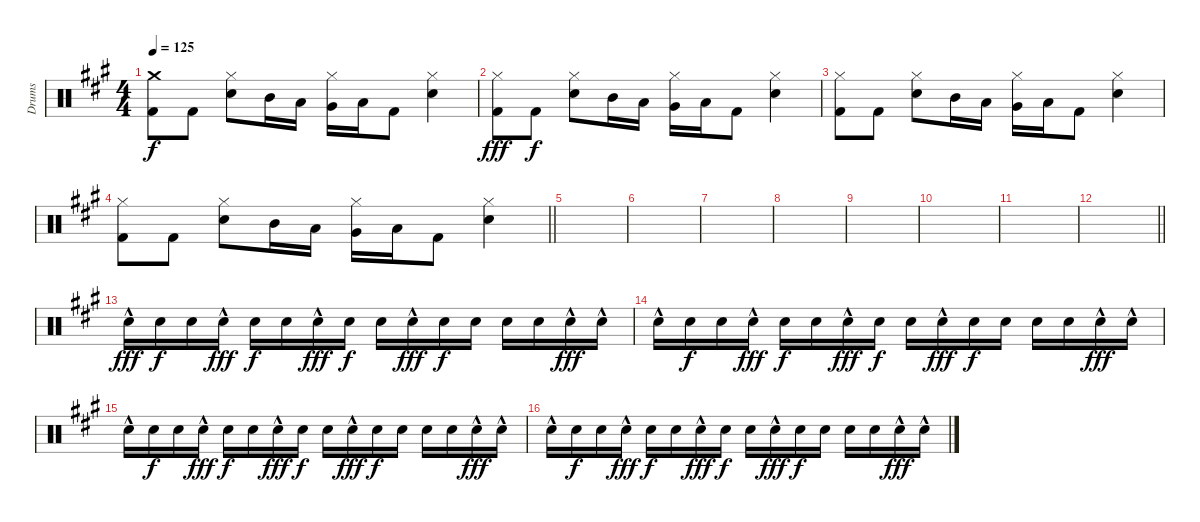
\track ("Drums" "Drums") {instrument percussion}
\staff {score}
\articulation defaults
\ts (4 4)
\tempo 125
\clef neutral
\ks a
("Crash medium (hit)" "Kick (hit) 2").8{dy f} "Kick (hit) 2".8 ("Hi-Hat (closed)" "Snare (hit) 2").8 "Mid Tom (hit)".16 "Low Tom (hit)".16 ("Hi-Hat (closed)" "Very Low Tom (hit)").16 "Low Floor Tom (hit)".16 "Kick (hit) 2".8 ("Hi-Hat (closed)" "Snare (hit) 2").4 |
("Hi-Hat (closed)" "Kick (hit) 2").8{dy fff} "Kick (hit) 2".8{dy f} ("Hi-Hat (closed)" "Snare (hit) 2").8 "Mid Tom (hit)".16 "Low Tom (hit)".16 ("Hi-Hat (closed)" "Very Low Tom (hit)").16 "Low Floor Tom (hit)".16 "Kick (hit) 2".8 ("Hi-Hat (closed)" "Snare (hit) 2").4 |
("Hi-Hat (closed)" "Kick (hit) 2").8 "Kick (hit) 2".8 ("Hi-Hat (closed)" "Snare (hit) 2").8 "Mid Tom (hit)".16 "Low Tom (hit)".16 ("Hi-Hat (closed)" "Very Low Tom (hit)").16 "Low Floor Tom (hit)".16 "Kick (hit) 2".8 ("Hi-Hat (closed)" "Snare (hit) 2").4 |
\barLineRight lightlight
("Hi-Hat (closed)" "Kick (hit) 2").8 "Kick (hit) 2".8 ("Hi-Hat (closed)" "Snare (hit) 2").8 "Mid Tom (hit)".16 "Low Tom (hit)".16 ("Hi-Hat (closed)" "Very Low Tom (hit)").16 "Low Floor Tom (hit)".16 "Kick (hit) 2".8 ("Hi-Hat (closed)" "Snare (hit) 2").4 |
|
|
|
|
|
|
|
\barLineRight lightlight
|
"Snare (hit) 2"{hac}.16{dy fff} "Snare (hit) 2".16{dy f} "Snare (hit) 2".16 "Snare (hit) 2"{hac}.16{dy fff} "Snare (hit) 2".16{dy f} "Snare (hit) 2".16 "Snare (hit) 2"{hac}.16{dy fff} "Snare (hit) 2".16{dy f} "Snare (hit) 2".16 "Snare (hit) 2"{hac}.16{dy fff} "Snare (hit) 2".16{dy f} "Snare (hit) 2".16 "Snare (hit) 2".16 "Snare (hit) 2".16 "Snare (hit) 2"{hac}.16{dy fff} "Snare (hit) 2"{hac}.16 |
"Snare (hit) 2"{hac}.16 "Snare (hit) 2".16{dy f} "Snare (hit) 2".16 "Snare (hit) 2"{hac}.16{dy fff} "Snare (hit) 2".16{dy f} "Snare (hit) 2".16 "Snare (hit) 2"{hac}.16{dy fff} "Snare (hit) 2".16{dy f} "Snare (hit) 2".16 "Snare (hit) 2"{hac}.16{dy fff} "Snare (hit) 2".16{dy f} "Snare (hit) 2".16 "Snare (hit) 2".16 "Snare (hit) 2".16 "Snare (hit) 2"{hac}.16{dy fff} "Snare (hit) 2"{hac}.16 |
"Snare (hit) 2"{hac}.16 "Snare (hit) 2".16{dy f} "Snare (hit) 2".16 "Snare (hit) 2"{hac}.16{dy fff} "Snare (hit) 2".16{dy f} "Snare (hit) 2".16 "Snare (hit) 2"{hac}.16{dy fff} "Snare (hit) 2".16{dy f} "Snare (hit) 2".16 "Snare (hit) 2"{hac}.16{dy fff} "Snare (hit) 2".16{dy f} "Snare (hit) 2".16 "Snare (hit) 2".16 "Snare (hit) 2".16 "Snare (hit) 2"{hac}.16{dy fff} "Snare (hit) 2"{hac}.16 |
"Snare (hit) 2"{hac}.16 "Snare (hit) 2".16{dy f} "Snare (hit) 2".16 "Snare (hit) 2"{hac}.16{dy fff} "Snare (hit) 2".16{dy f} "Snare (hit) 2".16 "Snare (hit) 2"{hac}.16{dy fff} "Snare (hit) 2".16{dy f} "Snare (hit) 2".16 "Snare (hit) 2"{hac}.16{dy fff} "Snare (hit) 2".16{dy f} "Snare (hit) 2".16 "Snare (hit) 2".16 "Snare (hit) 2".16 "Snare (hit) 2"{hac}.16{dy fff} "Snare (hit) 2"{hac}.16
